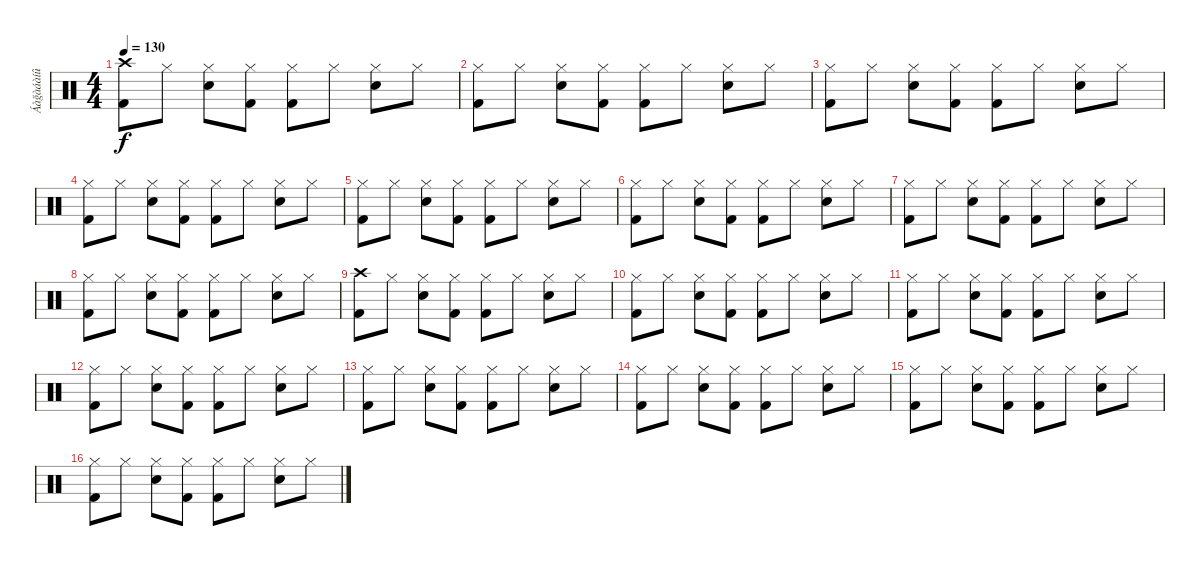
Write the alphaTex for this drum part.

\track ("Áàğàáàíû" "Áàğàáàíû") {instrument percussion}
\staff {score}
\articulation defaults
\ts (4 4)
\tempo 130
\clef neutral
\ks c
("Crash high (hit)" "Kick (hit) 2").8{dy f} "Hi-Hat (closed)".8 ("Hi-Hat (closed)" "Snare (hit) 2").8 ("Hi-Hat (closed)" "Kick (hit) 2").8 ("Hi-Hat (closed)" "Kick (hit) 2").8 "Hi-Hat (closed)".8 ("Hi-Hat (closed)" "Snare (hit) 2").8 "Hi-Hat (closed)".8 |
("Hi-Hat (closed)" "Kick (hit) 2").8 "Hi-Hat (closed)".8 ("Hi-Hat (closed)" "Snare (hit) 2").8 ("Hi-Hat (closed)" "Kick (hit) 2").8 ("Hi-Hat (closed)" "Kick (hit) 2").8 "Hi-Hat (closed)".8 ("Hi-Hat (closed)" "Snare (hit) 2").8 "Hi-Hat (closed)".8 |
("Hi-Hat (closed)" "Kick (hit) 2").8 "Hi-Hat (closed)".8 ("Hi-Hat (closed)" "Snare (hit) 2").8 ("Hi-Hat (closed)" "Kick (hit) 2").8 ("Hi-Hat (closed)" "Kick (hit) 2").8 "Hi-Hat (closed)".8 ("Hi-Hat (closed)" "Snare (hit) 2").8 "Hi-Hat (closed)".8 |
("Hi-Hat (closed)" "Kick (hit) 2").8 "Hi-Hat (closed)".8 ("Hi-Hat (closed)" "Snare (hit) 2").8 ("Hi-Hat (closed)" "Kick (hit) 2").8 ("Hi-Hat (closed)" "Kick (hit) 2").8 "Hi-Hat (closed)".8 ("Hi-Hat (closed)" "Snare (hit) 2").8 "Hi-Hat (closed)".8 |
("Hi-Hat (closed)" "Kick (hit) 2").8 "Hi-Hat (closed)".8 ("Hi-Hat (closed)" "Snare (hit) 2").8 ("Hi-Hat (closed)" "Kick (hit) 2").8 ("Hi-Hat (closed)" "Kick (hit) 2").8 "Hi-Hat (closed)".8 ("Hi-Hat (closed)" "Snare (hit) 2").8 "Hi-Hat (closed)".8 |
("Hi-Hat (closed)" "Kick (hit) 2").8 "Hi-Hat (closed)".8 ("Hi-Hat (closed)" "Snare (hit) 2").8 ("Hi-Hat (closed)" "Kick (hit) 2").8 ("Hi-Hat (closed)" "Kick (hit) 2").8 "Hi-Hat (closed)".8 ("Hi-Hat (closed)" "Snare (hit) 2").8 "Hi-Hat (closed)".8 |
("Hi-Hat (closed)" "Kick (hit) 2").8 "Hi-Hat (closed)".8 ("Hi-Hat (closed)" "Snare (hit) 2").8 ("Hi-Hat (closed)" "Kick (hit) 2").8 ("Hi-Hat (closed)" "Kick (hit) 2").8 "Hi-Hat (closed)".8 ("Hi-Hat (closed)" "Snare (hit) 2").8 "Hi-Hat (closed)".8 |
("Hi-Hat (closed)" "Kick (hit) 2").8 "Hi-Hat (closed)".8 ("Hi-Hat (closed)" "Snare (hit) 2").8 ("Hi-Hat (closed)" "Kick (hit) 2").8 ("Hi-Hat (closed)" "Kick (hit) 2").8 "Hi-Hat (closed)".8 ("Hi-Hat (closed)" "Snare (hit) 2").8 "Hi-Hat (closed)".8 |
("Crash high (hit)" "Kick (hit) 2").8 "Hi-Hat (closed)".8 ("Hi-Hat (closed)" "Snare (hit) 2").8 ("Hi-Hat (closed)" "Kick (hit) 2").8 ("Hi-Hat (closed)" "Kick (hit) 2").8 "Hi-Hat (closed)".8 ("Hi-Hat (closed)" "Snare (hit) 2").8 "Hi-Hat (closed)".8 |
("Hi-Hat (closed)" "Kick (hit) 2").8 "Hi-Hat (closed)".8 ("Hi-Hat (closed)" "Snare (hit) 2").8 ("Hi-Hat (closed)" "Kick (hit) 2").8 ("Hi-Hat (closed)" "Kick (hit) 2").8 "Hi-Hat (closed)".8 ("Hi-Hat (closed)" "Snare (hit) 2").8 "Hi-Hat (closed)".8 |
("Hi-Hat (closed)" "Kick (hit) 2").8 "Hi-Hat (closed)".8 ("Hi-Hat (closed)" "Snare (hit) 2").8 ("Hi-Hat (closed)" "Kick (hit) 2").8 ("Hi-Hat (closed)" "Kick (hit) 2").8 "Hi-Hat (closed)".8 ("Hi-Hat (closed)" "Snare (hit) 2").8 "Hi-Hat (closed)".8 |
("Hi-Hat (closed)" "Kick (hit) 2").8 "Hi-Hat (closed)".8 ("Hi-Hat (closed)" "Snare (hit) 2").8 ("Hi-Hat (closed)" "Kick (hit) 2").8 ("Hi-Hat (closed)" "Kick (hit) 2").8 "Hi-Hat (closed)".8 ("Hi-Hat (closed)" "Snare (hit) 2").8 "Hi-Hat (closed)".8 |
("Hi-Hat (closed)" "Kick (hit) 2").8 "Hi-Hat (closed)".8 ("Hi-Hat (closed)" "Snare (hit) 2").8 ("Hi-Hat (closed)" "Kick (hit) 2").8 ("Hi-Hat (closed)" "Kick (hit) 2").8 "Hi-Hat (closed)".8 ("Hi-Hat (closed)" "Snare (hit) 2").8 "Hi-Hat (closed)".8 |
("Hi-Hat (closed)" "Kick (hit) 2").8 "Hi-Hat (closed)".8 ("Hi-Hat (closed)" "Snare (hit) 2").8 ("Hi-Hat (closed)" "Kick (hit) 2").8 ("Hi-Hat (closed)" "Kick (hit) 2").8 "Hi-Hat (closed)".8 ("Hi-Hat (closed)" "Snare (hit) 2").8 "Hi-Hat (closed)".8 |
("Hi-Hat (closed)" "Kick (hit) 2").8 "Hi-Hat (closed)".8 ("Hi-Hat (closed)" "Snare (hit) 2").8 ("Hi-Hat (closed)" "Kick (hit) 2").8 ("Hi-Hat (closed)" "Kick (hit) 2").8 "Hi-Hat (closed)".8 ("Hi-Hat (closed)" "Snare (hit) 2").8 "Hi-Hat (closed)".8 |
("Hi-Hat (closed)" "Kick (hit) 2").8 "Hi-Hat (closed)".8 ("Hi-Hat (closed)" "Snare (hit) 2").8 ("Hi-Hat (closed)" "Kick (hit) 2").8 ("Hi-Hat (closed)" "Kick (hit) 2").8 "Hi-Hat (closed)".8 ("Hi-Hat (closed)" "Snare (hit) 2").8 "Hi-Hat (closed)".8
